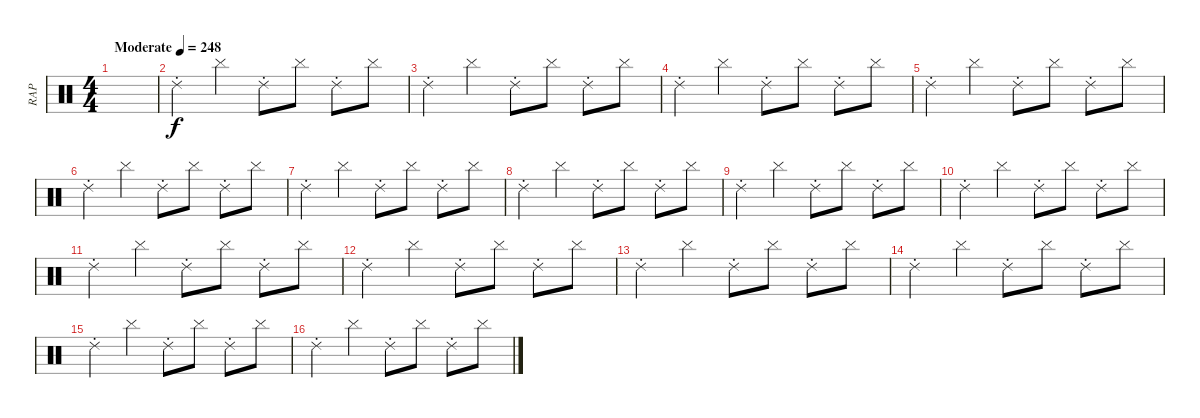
\track ("RAP" "RAP") {instrument percussion}
\staff {score}
\articulation defaults
\ts (4 4)
\tempo (248 "Moderate")
\clef neutral
\ks c
|
"Ride (choke) 2".4 "Cymbal (hit)".4 "Ride (choke) 2".8 "Cymbal (hit)".8 "Ride (choke) 2".8 "Cymbal (hit)".8 |
"Ride (choke) 2".4 "Cymbal (hit)".4 "Ride (choke) 2".8 "Cymbal (hit)".8 "Ride (choke) 2".8 "Cymbal (hit)".8 |
"Ride (choke) 2".4 "Cymbal (hit)".4 "Ride (choke) 2".8 "Cymbal (hit)".8 "Ride (choke) 2".8 "Cymbal (hit)".8 |
"Ride (choke) 2".4 "Cymbal (hit)".4 "Ride (choke) 2".8 "Cymbal (hit)".8 "Ride (choke) 2".8 "Cymbal (hit)".8 |
"Ride (choke) 2".4 "Cymbal (hit)".4 "Ride (choke) 2".8 "Cymbal (hit)".8 "Ride (choke) 2".8 "Cymbal (hit)".8 |
"Ride (choke) 2".4 "Cymbal (hit)".4 "Ride (choke) 2".8 "Cymbal (hit)".8 "Ride (choke) 2".8 "Cymbal (hit)".8 |
"Ride (choke) 2".4 "Cymbal (hit)".4 "Ride (choke) 2".8 "Cymbal (hit)".8 "Ride (choke) 2".8 "Cymbal (hit)".8 |
"Ride (choke) 2".4 "Cymbal (hit)".4 "Ride (choke) 2".8 "Cymbal (hit)".8 "Ride (choke) 2".8 "Cymbal (hit)".8 |
"Ride (choke) 2".4 "Cymbal (hit)".4 "Ride (choke) 2".8 "Cymbal (hit)".8 "Ride (choke) 2".8 "Cymbal (hit)".8 |
"Ride (choke) 2".4 "Cymbal (hit)".4 "Ride (choke) 2".8 "Cymbal (hit)".8 "Ride (choke) 2".8 "Cymbal (hit)".8 |
"Ride (choke) 2".4 "Cymbal (hit)".4 "Ride (choke) 2".8 "Cymbal (hit)".8 "Ride (choke) 2".8 "Cymbal (hit)".8 |
"Ride (choke) 2".4 "Cymbal (hit)".4 "Ride (choke) 2".8 "Cymbal (hit)".8 "Ride (choke) 2".8 "Cymbal (hit)".8 |
"Ride (choke) 2".4 "Cymbal (hit)".4 "Ride (choke) 2".8 "Cymbal (hit)".8 "Ride (choke) 2".8 "Cymbal (hit)".8 |
"Ride (choke) 2".4 "Cymbal (hit)".4 "Ride (choke) 2".8 "Cymbal (hit)".8 "Ride (choke) 2".8 "Cymbal (hit)".8 |
"Ride (choke) 2".4 "Cymbal (hit)".4 "Ride (choke) 2".8 "Cymbal (hit)".8 "Ride (choke) 2".8 "Cymbal (hit)".8
